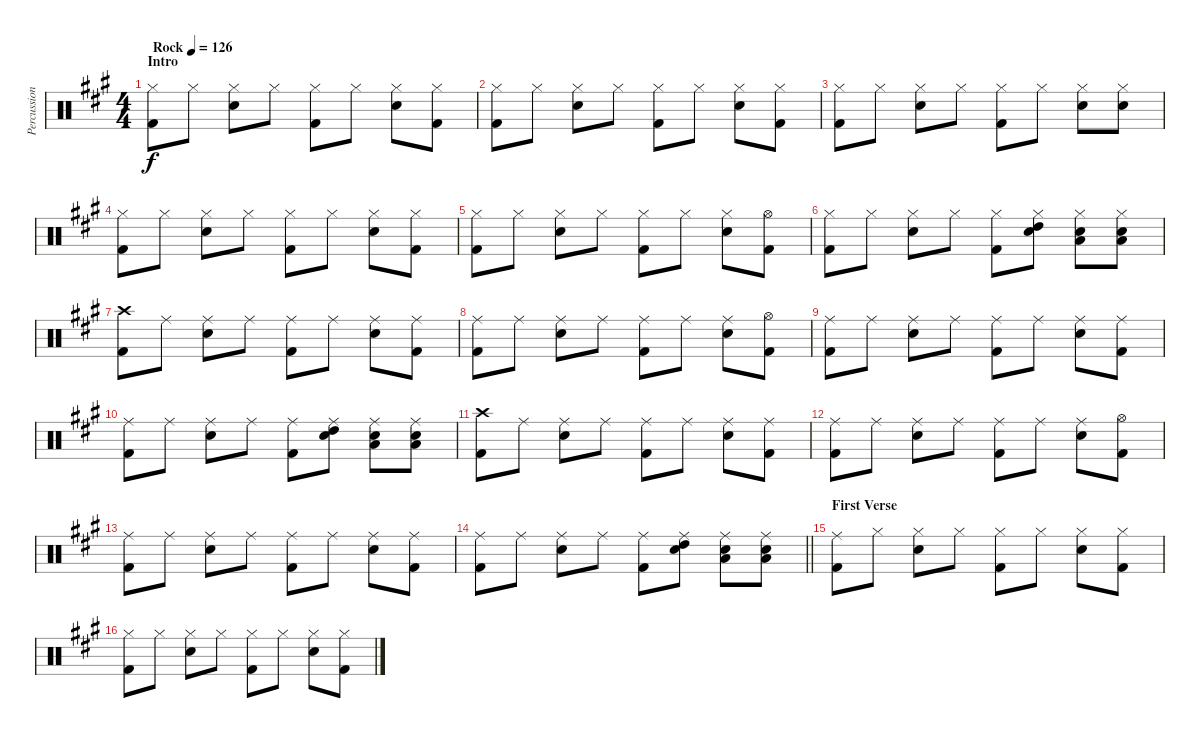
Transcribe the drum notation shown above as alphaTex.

\track ("Percussion" "Percussion") {instrument percussion}
\staff {score}
\articulation defaults
\ts (4 4)
\section ("" "Intro")
\tempo (126 "Rock")
\clef neutral
\ks a
("Hi-Hat (closed)" "Kick (hit) 2").8{dy f} "Hi-Hat (closed)".8 ("Hi-Hat (closed)" "Snare (hit) 2").8 "Hi-Hat (closed)".8 ("Hi-Hat (closed)" "Kick (hit) 2").8 "Hi-Hat (closed)".8 ("Hi-Hat (closed)" "Snare (hit) 2").8 ("Hi-Hat (closed)" "Kick (hit) 2").8 |
("Hi-Hat (closed)" "Kick (hit) 2").8 "Hi-Hat (closed)".8 ("Hi-Hat (closed)" "Snare (hit) 2").8 "Hi-Hat (closed)".8 ("Hi-Hat (closed)" "Kick (hit) 2").8 "Hi-Hat (closed)".8 ("Hi-Hat (closed)" "Snare (hit) 2").8 ("Hi-Hat (closed)" "Kick (hit) 2").8 |
("Hi-Hat (closed)" "Kick (hit) 2").8 "Hi-Hat (closed)".8 ("Hi-Hat (closed)" "Snare (hit) 2").8 "Hi-Hat (closed)".8 ("Hi-Hat (closed)" "Kick (hit) 2").8 "Hi-Hat (closed)".8 ("Hi-Hat (closed)" "Snare (hit) 2").8 ("Hi-Hat (closed)" "Snare (hit) 2").8 |
("Hi-Hat (closed)" "Kick (hit) 2").8 "Hi-Hat (closed)".8 ("Hi-Hat (closed)" "Snare (hit) 2").8 "Hi-Hat (closed)".8 ("Hi-Hat (closed)" "Kick (hit) 2").8 "Hi-Hat (closed)".8 ("Hi-Hat (closed)" "Snare (hit) 2").8 ("Hi-Hat (closed)" "Kick (hit) 2").8 |
("Hi-Hat (closed)" "Kick (hit) 2").8 "Hi-Hat (closed)".8 ("Hi-Hat (closed)" "Snare (hit) 2").8 "Hi-Hat (closed)".8 ("Hi-Hat (closed)" "Kick (hit) 2").8 "Hi-Hat (closed)".8 ("Hi-Hat (closed)" "Snare (hit) 2").8 ("Hi-Hat (open)" "Kick (hit) 2").8 |
("Hi-Hat (closed)" "Kick (hit) 2").8 "Hi-Hat (closed)".8 ("Hi-Hat (closed)" "Snare (hit) 2").8 "Hi-Hat (closed)".8 ("Hi-Hat (closed)" "Kick (hit) 2").8 ("Hi-Hat (closed)" "High Tom (hit)" "Snare (hit) 2").8 ("Hi-Hat (closed)" "Low Tom (hit)" "Snare (hit) 2").8 ("Hi-Hat (closed)" "Low Floor Tom (hit)" "Snare (hit) 2").8 |
("Crash high (hit)" "Kick (hit) 2").8 "Ride (middle)".8 ("Ride (middle)" "Snare (hit) 2").8 "Ride (middle)".8 ("Ride (middle)" "Kick (hit) 2").8 "Ride (middle)".8 ("Ride (middle)" "Snare (hit) 2").8 ("Ride (middle)" "Kick (hit) 2").8 |
("Ride (middle)" "Kick (hit) 2").8 "Ride (middle)".8 ("Ride (middle)" "Snare (hit) 2").8 "Ride (middle)".8 ("Ride (middle)" "Kick (hit) 2").8 "Ride (middle)".8 ("Ride (middle)" "Snare (hit) 2").8 ("Hi-Hat (open)" "Kick (hit) 2").8 |
("Ride (middle)" "Kick (hit) 2").8 "Ride (middle)".8 ("Ride (middle)" "Snare (hit) 2").8 "Ride (middle)".8 ("Ride (middle)" "Kick (hit) 2").8 "Ride (middle)".8 ("Ride (middle)" "Snare (hit) 2").8 ("Ride (middle)" "Kick (hit) 2").8 |
("Ride (middle)" "Kick (hit) 2").8 "Ride (middle)".8 ("Ride (middle)" "Snare (hit) 2").8 "Ride (middle)".8 ("Ride (middle)" "Kick (hit) 2").8 ("Ride (middle)" "High Tom (hit)" "Snare (hit) 2").8 ("Ride (middle)" "Low Tom (hit)" "Snare (hit) 2").8 ("Ride (middle)" "Low Floor Tom (hit)" "Snare (hit) 2").8 |
("Crash high (hit)" "Kick (hit) 2").8 "Ride (middle)".8 ("Ride (middle)" "Snare (hit) 2").8 "Ride (middle)".8 ("Ride (middle)" "Kick (hit) 2").8 "Ride (middle)".8 ("Ride (middle)" "Snare (hit) 2").8 ("Ride (middle)" "Kick (hit) 2").8 |
("Ride (middle)" "Kick (hit) 2").8 "Ride (middle)".8 ("Ride (middle)" "Snare (hit) 2").8 "Ride (middle)".8 ("Ride (middle)" "Kick (hit) 2").8 "Ride (middle)".8 ("Ride (middle)" "Snare (hit) 2").8 ("Hi-Hat (open)" "Kick (hit) 2").8 |
("Ride (middle)" "Kick (hit) 2").8 "Ride (middle)".8 ("Ride (middle)" "Snare (hit) 2").8 "Ride (middle)".8 ("Ride (middle)" "Kick (hit) 2").8 "Ride (middle)".8 ("Ride (middle)" "Snare (hit) 2").8 ("Ride (middle)" "Kick (hit) 2").8 |
\barLineRight lightlight
("Ride (middle)" "Kick (hit) 2").8 "Ride (middle)".8 ("Ride (middle)" "Snare (hit) 2").8 "Ride (middle)".8 ("Ride (middle)" "Kick (hit) 2").8 ("Ride (middle)" "High Tom (hit)" "Snare (hit) 2").8 ("Ride (middle)" "Low Tom (hit)" "Snare (hit) 2").8 ("Ride (middle)" "Low Floor Tom (hit)" "Snare (hit) 2").8 |
\section ("" "First Verse")
("Ride (middle)" "Kick (hit) 2").8 "Hi-Hat (closed)".8 ("Hi-Hat (closed)" "Snare (hit) 2").8 "Hi-Hat (closed)".8 ("Hi-Hat (closed)" "Kick (hit) 2").8 "Hi-Hat (closed)".8 ("Hi-Hat (closed)" "Snare (hit) 2").8 ("Hi-Hat (closed)" "Kick (hit) 2").8 |
("Hi-Hat (closed)" "Kick (hit) 2").8 "Hi-Hat (closed)".8 ("Hi-Hat (closed)" "Snare (hit) 2").8 "Hi-Hat (closed)".8 ("Hi-Hat (closed)" "Kick (hit) 2").8 "Hi-Hat (closed)".8 ("Hi-Hat (closed)" "Snare (hit) 2").8 ("Hi-Hat (closed)" "Kick (hit) 2").8
